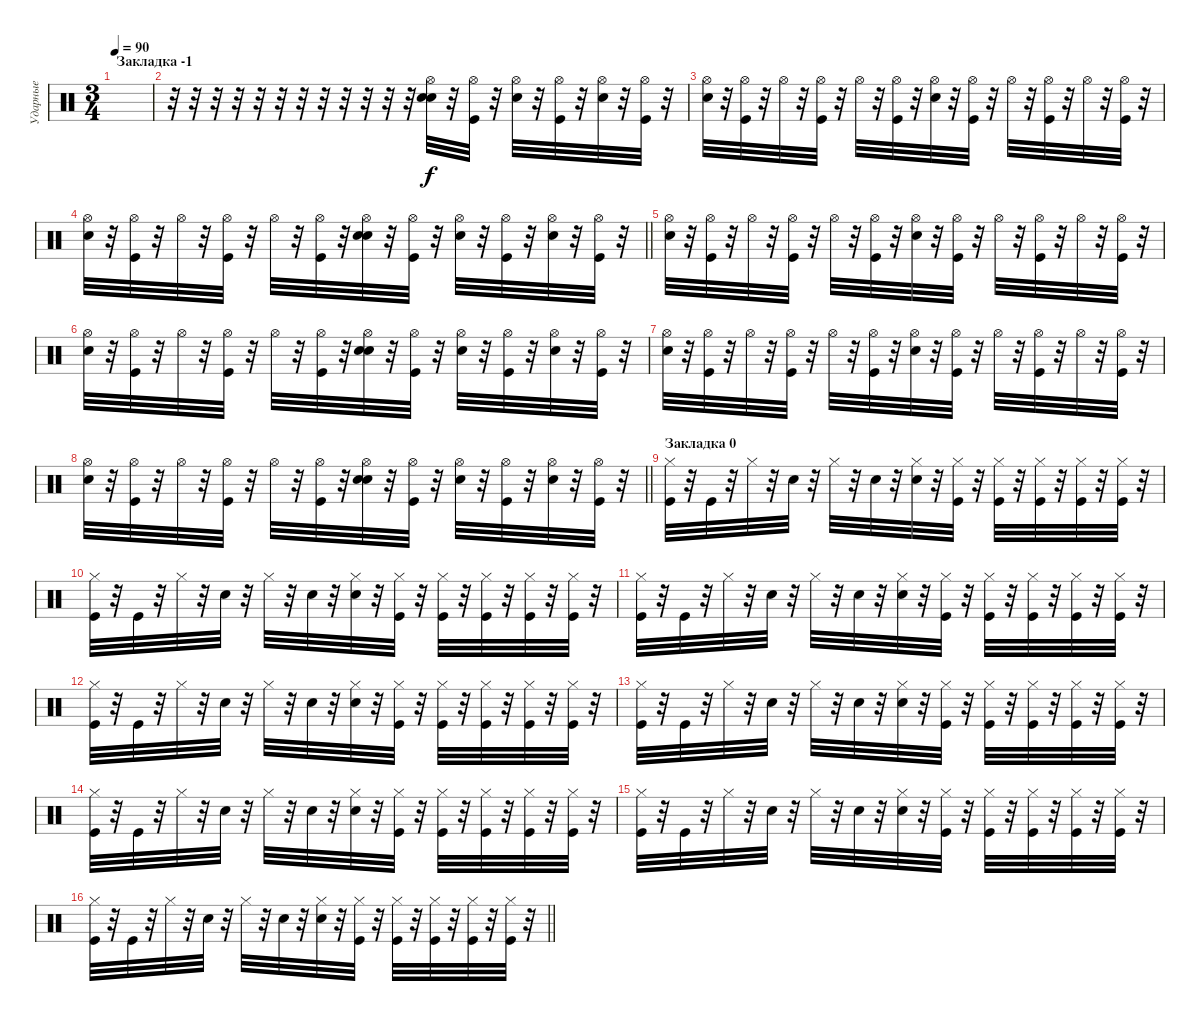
\track ("Ударные" "Ударные") {instrument percussion}
\staff {score}
\articulation defaults
\ts (3 4)
\section ("" "Закладка -1")
\tempo 90
\clef neutral
\ks c
|
r.32 r.32 r.32 r.32 r.32 r.32 r.32 r.32 r.32 r.32 r.32 r.32 ("Hi-Hat (open)" "Electric Snare (hit)" "Electric Snare (hit)").32 r.32 ("Hi-Hat (open)" "Kick (hit)").32 r.32 ("Hi-Hat (open)" "Electric Snare (hit)").32 r.32 ("Hi-Hat (open)" "Kick (hit)").32 r.32 ("Hi-Hat (open)" "Electric Snare (hit)").32 r.32 ("Hi-Hat (open)" "Kick (hit)").32 r.32 |
("Hi-Hat (open)" "Electric Snare (hit)").32 r.32 ("Hi-Hat (open)" "Kick (hit)").32 r.32 "Hi-Hat (open)".32 r.32 ("Hi-Hat (open)" "Kick (hit)").32 r.32 "Hi-Hat (open)".32 r.32 ("Hi-Hat (open)" "Kick (hit)").32 r.32 ("Hi-Hat (open)" "Electric Snare (hit)").32 r.32 ("Hi-Hat (open)" "Kick (hit)").32 r.32 "Hi-Hat (open)".32 r.32 ("Hi-Hat (open)" "Kick (hit)").32 r.32 "Hi-Hat (open)".32 r.32 ("Hi-Hat (open)" "Kick (hit)").32 r.32 |
\barLineRight lightlight
("Hi-Hat (open)" "Electric Snare (hit)").32 r.32 ("Hi-Hat (open)" "Kick (hit)").32 r.32 "Hi-Hat (open)".32 r.32 ("Hi-Hat (open)" "Kick (hit)").32 r.32 "Hi-Hat (open)".32 r.32 ("Hi-Hat (open)" "Kick (hit)").32 r.32 ("Hi-Hat (open)" "Electric Snare (hit)" "Electric Snare (hit)").32 r.32 ("Hi-Hat (open)" "Kick (hit)").32 r.32 ("Hi-Hat (open)" "Electric Snare (hit)").32 r.32 ("Hi-Hat (open)" "Kick (hit)").32 r.32 ("Hi-Hat (open)" "Electric Snare (hit)").32 r.32 ("Hi-Hat (open)" "Kick (hit)").32 r.32 |
("Hi-Hat (open)" "Electric Snare (hit)").32 r.32 ("Hi-Hat (open)" "Kick (hit)").32 r.32 "Hi-Hat (open)".32 r.32 ("Hi-Hat (open)" "Kick (hit)").32 r.32 "Hi-Hat (open)".32 r.32 ("Hi-Hat (open)" "Kick (hit)").32 r.32 ("Hi-Hat (open)" "Electric Snare (hit)").32 r.32 ("Hi-Hat (open)" "Kick (hit)").32 r.32 "Hi-Hat (open)".32 r.32 ("Hi-Hat (open)" "Kick (hit)").32 r.32 "Hi-Hat (open)".32 r.32 ("Hi-Hat (open)" "Kick (hit)").32 r.32 |
("Hi-Hat (open)" "Electric Snare (hit)").32 r.32 ("Hi-Hat (open)" "Kick (hit)").32 r.32 "Hi-Hat (open)".32 r.32 ("Hi-Hat (open)" "Kick (hit)").32 r.32 "Hi-Hat (open)".32 r.32 ("Hi-Hat (open)" "Kick (hit)").32 r.32 ("Hi-Hat (open)" "Electric Snare (hit)" "Electric Snare (hit)").32 r.32 ("Hi-Hat (open)" "Kick (hit)").32 r.32 ("Hi-Hat (open)" "Electric Snare (hit)").32 r.32 ("Hi-Hat (open)" "Kick (hit)").32 r.32 ("Hi-Hat (open)" "Electric Snare (hit)").32 r.32 ("Hi-Hat (open)" "Kick (hit)").32 r.32 |
("Hi-Hat (open)" "Electric Snare (hit)").32 r.32 ("Hi-Hat (open)" "Kick (hit)").32 r.32 "Hi-Hat (open)".32 r.32 ("Hi-Hat (open)" "Kick (hit)").32 r.32 "Hi-Hat (open)".32 r.32 ("Hi-Hat (open)" "Kick (hit)").32 r.32 ("Hi-Hat (open)" "Electric Snare (hit)").32 r.32 ("Hi-Hat (open)" "Kick (hit)").32 r.32 "Hi-Hat (open)".32 r.32 ("Hi-Hat (open)" "Kick (hit)").32 r.32 "Hi-Hat (open)".32 r.32 ("Hi-Hat (open)" "Kick (hit)").32 r.32 |
\barLineRight lightlight
("Hi-Hat (open)" "Electric Snare (hit)").32 r.32 ("Hi-Hat (open)" "Kick (hit)").32 r.32 "Hi-Hat (open)".32 r.32 ("Hi-Hat (open)" "Kick (hit)").32 r.32 "Hi-Hat (open)".32 r.32 ("Hi-Hat (open)" "Kick (hit)").32 r.32 ("Hi-Hat (open)" "Electric Snare (hit)" "Electric Snare (hit)").32 r.32 ("Hi-Hat (open)" "Kick (hit)").32 r.32 ("Hi-Hat (open)" "Electric Snare (hit)").32 r.32 ("Hi-Hat (open)" "Kick (hit)").32 r.32 ("Hi-Hat (open)" "Electric Snare (hit)").32 r.32 ("Hi-Hat (open)" "Kick (hit)").32 r.32 |
\section ("" "Закладка 0")
("Hi-Hat (closed)" "Kick (hit)").32 r.32 "Kick (hit)".32 r.32 "Hi-Hat (closed)".32 r.32 "Snare (hit)".32 r.32 "Hi-Hat (closed)".32 r.32 "Snare (hit)".32 r.32 ("Hi-Hat (closed)" "Electric Snare (hit)").32 r.32 ("Hi-Hat (closed)" "Kick (hit)").32 r.32 ("Hi-Hat (closed)" "Kick (hit)").32 r.32 ("Hi-Hat (closed)" "Kick (hit)").32 r.32 ("Hi-Hat (closed)" "Kick (hit)").32 r.32 ("Hi-Hat (closed)" "Kick (hit)").32 r.32 |
("Hi-Hat (closed)" "Kick (hit)").32 r.32 "Kick (hit)".32 r.32 "Hi-Hat (closed)".32 r.32 "Snare (hit)".32 r.32 "Hi-Hat (closed)".32 r.32 "Snare (hit)".32 r.32 ("Hi-Hat (closed)" "Electric Snare (hit)").32 r.32 ("Hi-Hat (closed)" "Kick (hit)").32 r.32 ("Hi-Hat (closed)" "Kick (hit)").32 r.32 ("Hi-Hat (closed)" "Kick (hit)").32 r.32 ("Hi-Hat (closed)" "Kick (hit)").32 r.32 ("Hi-Hat (closed)" "Kick (hit)").32 r.32 |
("Hi-Hat (closed)" "Kick (hit)").32 r.32 "Kick (hit)".32 r.32 "Hi-Hat (closed)".32 r.32 "Snare (hit)".32 r.32 "Hi-Hat (closed)".32 r.32 "Snare (hit)".32 r.32 ("Hi-Hat (closed)" "Electric Snare (hit)").32 r.32 ("Hi-Hat (closed)" "Kick (hit)").32 r.32 ("Hi-Hat (closed)" "Kick (hit)").32 r.32 ("Hi-Hat (closed)" "Kick (hit)").32 r.32 ("Hi-Hat (closed)" "Kick (hit)").32 r.32 ("Hi-Hat (closed)" "Kick (hit)").32 r.32 |
("Hi-Hat (closed)" "Kick (hit)").32 r.32 "Kick (hit)".32 r.32 "Hi-Hat (closed)".32 r.32 "Snare (hit)".32 r.32 "Hi-Hat (closed)".32 r.32 "Snare (hit)".32 r.32 ("Hi-Hat (closed)" "Electric Snare (hit)").32 r.32 ("Hi-Hat (closed)" "Kick (hit)").32 r.32 ("Hi-Hat (closed)" "Kick (hit)").32 r.32 ("Hi-Hat (closed)" "Kick (hit)").32 r.32 ("Hi-Hat (closed)" "Kick (hit)").32 r.32 ("Hi-Hat (closed)" "Kick (hit)").32 r.32 |
("Hi-Hat (closed)" "Kick (hit)").32 r.32 "Kick (hit)".32 r.32 "Hi-Hat (closed)".32 r.32 "Snare (hit)".32 r.32 "Hi-Hat (closed)".32 r.32 "Snare (hit)".32 r.32 ("Hi-Hat (closed)" "Electric Snare (hit)").32 r.32 ("Hi-Hat (closed)" "Kick (hit)").32 r.32 ("Hi-Hat (closed)" "Kick (hit)").32 r.32 ("Hi-Hat (closed)" "Kick (hit)").32 r.32 ("Hi-Hat (closed)" "Kick (hit)").32 r.32 ("Hi-Hat (closed)" "Kick (hit)").32 r.32 |
("Hi-Hat (closed)" "Kick (hit)").32 r.32 "Kick (hit)".32 r.32 "Hi-Hat (closed)".32 r.32 "Snare (hit)".32 r.32 "Hi-Hat (closed)".32 r.32 "Snare (hit)".32 r.32 ("Hi-Hat (closed)" "Electric Snare (hit)").32 r.32 ("Hi-Hat (closed)" "Kick (hit)").32 r.32 ("Hi-Hat (closed)" "Kick (hit)").32 r.32 ("Hi-Hat (closed)" "Kick (hit)").32 r.32 ("Hi-Hat (closed)" "Kick (hit)").32 r.32 ("Hi-Hat (closed)" "Kick (hit)").32 r.32 |
("Hi-Hat (closed)" "Kick (hit)").32 r.32 "Kick (hit)".32 r.32 "Hi-Hat (closed)".32 r.32 "Snare (hit)".32 r.32 "Hi-Hat (closed)".32 r.32 "Snare (hit)".32 r.32 ("Hi-Hat (closed)" "Electric Snare (hit)").32 r.32 ("Hi-Hat (closed)" "Kick (hit)").32 r.32 ("Hi-Hat (closed)" "Kick (hit)").32 r.32 ("Hi-Hat (closed)" "Kick (hit)").32 r.32 ("Hi-Hat (closed)" "Kick (hit)").32 r.32 ("Hi-Hat (closed)" "Kick (hit)").32 r.32 |
\barLineRight lightlight
("Hi-Hat (closed)" "Kick (hit)").32 r.32 "Kick (hit)".32 r.32 "Hi-Hat (closed)".32 r.32 "Snare (hit)".32 r.32 "Hi-Hat (closed)".32 r.32 "Snare (hit)".32 r.32 ("Hi-Hat (closed)" "Electric Snare (hit)").32 r.32 ("Hi-Hat (closed)" "Kick (hit)").32 r.32 ("Hi-Hat (closed)" "Kick (hit)").32 r.32 ("Hi-Hat (closed)" "Kick (hit)").32 r.32 ("Hi-Hat (closed)" "Kick (hit)").32 r.32 ("Hi-Hat (closed)" "Kick (hit)").32 r.32
